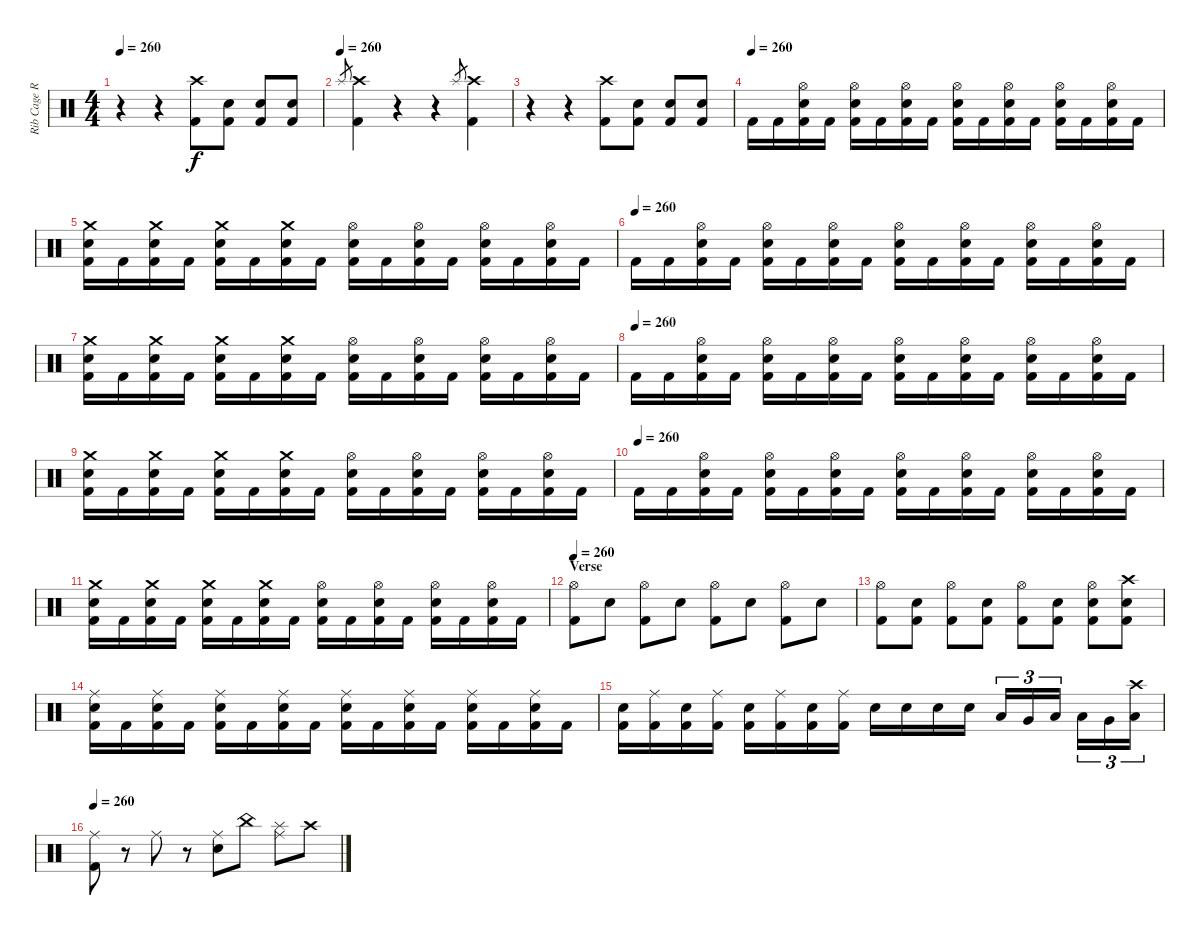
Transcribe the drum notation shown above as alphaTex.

\track ("Rib Cage Rupturing God Stomping Cremator" "Rib Cage R") {instrument percussion}
\staff {score}
\articulation defaults
\ts (4 4)
\tempo 260
\clef neutral
\ks c
r.4{dy f} r.4 ("Crash high (hit)" "Kick (hit) 2").8 ("Electric Snare (hit)" "Kick (hit) 2").8 ("Electric Snare (hit)" "Kick (hit) 2").8 ("Electric Snare (hit)" "Kick (hit) 2").8 |
\tempo (260)
"Splash (hit)".8{gr} ("Crash high (hit)" "Kick (hit) 2").4 r.4 r.4 "Splash (hit)".8{gr} ("Crash high (hit)" "Kick (hit) 2").4 |
r.4 r.4 ("Crash high (hit)" "Kick (hit) 2").8 ("Electric Snare (hit)" "Kick (hit) 2").8 ("Electric Snare (hit)" "Kick (hit) 2").8 ("Electric Snare (hit)" "Kick (hit) 2").8 |
\tempo (260)
"Kick (hit) 2".16 "Kick (hit) 2".16 ("Hi-Hat (open)" "Electric Snare (hit)" "Kick (hit) 2").16 "Kick (hit) 2".16 ("Hi-Hat (open)" "Electric Snare (hit)" "Kick (hit) 2").16 "Kick (hit) 2".16 ("Hi-Hat (open)" "Electric Snare (hit)" "Kick (hit) 2").16 "Kick (hit) 2".16 ("Hi-Hat (open)" "Electric Snare (hit)" "Kick (hit) 2").16 "Kick (hit) 2".16 ("Hi-Hat (open)" "Electric Snare (hit)" "Kick (hit) 2").16 "Kick (hit) 2".16 ("Hi-Hat (open)" "Electric Snare (hit)" "Kick (hit) 2").16 "Kick (hit) 2".16 ("Hi-Hat (open)" "Electric Snare (hit)" "Kick (hit) 2").16 "Kick (hit) 2".16 |
("Crash medium (hit)" "Electric Snare (hit)" "Kick (hit) 2").16 "Kick (hit) 2".16 ("Crash medium (hit)" "Electric Snare (hit)" "Kick (hit) 2").16 "Kick (hit) 2".16 ("Crash medium (hit)" "Electric Snare (hit)" "Kick (hit) 2").16 "Kick (hit) 2".16 ("Crash medium (hit)" "Electric Snare (hit)" "Kick (hit) 2").16 "Kick (hit) 2".16 ("Hi-Hat (open)" "Electric Snare (hit)" "Kick (hit) 2").16 "Kick (hit) 2".16 ("Hi-Hat (open)" "Electric Snare (hit)" "Kick (hit) 2").16 "Kick (hit) 2".16 ("Hi-Hat (open)" "Electric Snare (hit)" "Kick (hit) 2").16 "Kick (hit) 2".16 ("Hi-Hat (open)" "Electric Snare (hit)" "Kick (hit) 2").16 "Kick (hit) 2".16 |
\tempo (260)
"Kick (hit) 2".16 "Kick (hit) 2".16 ("Hi-Hat (open)" "Electric Snare (hit)" "Kick (hit) 2").16 "Kick (hit) 2".16 ("Hi-Hat (open)" "Electric Snare (hit)" "Kick (hit) 2").16 "Kick (hit) 2".16 ("Hi-Hat (open)" "Electric Snare (hit)" "Kick (hit) 2").16 "Kick (hit) 2".16 ("Hi-Hat (open)" "Electric Snare (hit)" "Kick (hit) 2").16 "Kick (hit) 2".16 ("Hi-Hat (open)" "Electric Snare (hit)" "Kick (hit) 2").16 "Kick (hit) 2".16 ("Hi-Hat (open)" "Electric Snare (hit)" "Kick (hit) 2").16 "Kick (hit) 2".16 ("Hi-Hat (open)" "Electric Snare (hit)" "Kick (hit) 2").16 "Kick (hit) 2".16 |
("Crash medium (hit)" "Electric Snare (hit)" "Kick (hit) 2").16 "Kick (hit) 2".16 ("Crash medium (hit)" "Electric Snare (hit)" "Kick (hit) 2").16 "Kick (hit) 2".16 ("Crash medium (hit)" "Electric Snare (hit)" "Kick (hit) 2").16 "Kick (hit) 2".16 ("Crash medium (hit)" "Electric Snare (hit)" "Kick (hit) 2").16 "Kick (hit) 2".16 ("Hi-Hat (open)" "Electric Snare (hit)" "Kick (hit) 2").16 "Kick (hit) 2".16 ("Hi-Hat (open)" "Electric Snare (hit)" "Kick (hit) 2").16 "Kick (hit) 2".16 ("Hi-Hat (open)" "Electric Snare (hit)" "Kick (hit) 2").16 "Kick (hit) 2".16 ("Hi-Hat (open)" "Electric Snare (hit)" "Kick (hit) 2").16 "Kick (hit) 2".16 |
\tempo (260)
"Kick (hit) 2".16 "Kick (hit) 2".16 ("Hi-Hat (open)" "Electric Snare (hit)" "Kick (hit) 2").16 "Kick (hit) 2".16 ("Hi-Hat (open)" "Electric Snare (hit)" "Kick (hit) 2").16 "Kick (hit) 2".16 ("Hi-Hat (open)" "Electric Snare (hit)" "Kick (hit) 2").16 "Kick (hit) 2".16 ("Hi-Hat (open)" "Electric Snare (hit)" "Kick (hit) 2").16 "Kick (hit) 2".16 ("Hi-Hat (open)" "Electric Snare (hit)" "Kick (hit) 2").16 "Kick (hit) 2".16 ("Hi-Hat (open)" "Electric Snare (hit)" "Kick (hit) 2").16 "Kick (hit) 2".16 ("Hi-Hat (open)" "Electric Snare (hit)" "Kick (hit) 2").16 "Kick (hit) 2".16 |
("Crash medium (hit)" "Electric Snare (hit)" "Kick (hit) 2").16 "Kick (hit) 2".16 ("Crash medium (hit)" "Electric Snare (hit)" "Kick (hit) 2").16 "Kick (hit) 2".16 ("Crash medium (hit)" "Electric Snare (hit)" "Kick (hit) 2").16 "Kick (hit) 2".16 ("Crash medium (hit)" "Electric Snare (hit)" "Kick (hit) 2").16 "Kick (hit) 2".16 ("Hi-Hat (open)" "Electric Snare (hit)" "Kick (hit) 2").16 "Kick (hit) 2".16 ("Hi-Hat (open)" "Electric Snare (hit)" "Kick (hit) 2").16 "Kick (hit) 2".16 ("Hi-Hat (open)" "Electric Snare (hit)" "Kick (hit) 2").16 "Kick (hit) 2".16 ("Hi-Hat (open)" "Electric Snare (hit)" "Kick (hit) 2").16 "Kick (hit) 2".16 |
\tempo (260)
"Kick (hit) 2".16 "Kick (hit) 2".16 ("Hi-Hat (open)" "Electric Snare (hit)" "Kick (hit) 2").16 "Kick (hit) 2".16 ("Hi-Hat (open)" "Electric Snare (hit)" "Kick (hit) 2").16 "Kick (hit) 2".16 ("Hi-Hat (open)" "Electric Snare (hit)" "Kick (hit) 2").16 "Kick (hit) 2".16 ("Hi-Hat (open)" "Electric Snare (hit)" "Kick (hit) 2").16 "Kick (hit) 2".16 ("Hi-Hat (open)" "Electric Snare (hit)" "Kick (hit) 2").16 "Kick (hit) 2".16 ("Hi-Hat (open)" "Electric Snare (hit)" "Kick (hit) 2").16 "Kick (hit) 2".16 ("Hi-Hat (open)" "Electric Snare (hit)" "Kick (hit) 2").16 "Kick (hit) 2".16 |
("Crash medium (hit)" "Electric Snare (hit)" "Kick (hit) 2").16 "Kick (hit) 2".16 ("Crash medium (hit)" "Electric Snare (hit)" "Kick (hit) 2").16 "Kick (hit) 2".16 ("Crash medium (hit)" "Electric Snare (hit)" "Kick (hit) 2").16 "Kick (hit) 2".16 ("Crash medium (hit)" "Electric Snare (hit)" "Kick (hit) 2").16 "Kick (hit) 2".16 ("Hi-Hat (open)" "Electric Snare (hit)" "Kick (hit) 2").16 "Kick (hit) 2".16 ("Hi-Hat (open)" "Electric Snare (hit)" "Kick (hit) 2").16 "Kick (hit) 2".16 ("Hi-Hat (open)" "Electric Snare (hit)" "Kick (hit) 2").16 "Kick (hit) 2".16 ("Hi-Hat (open)" "Electric Snare (hit)" "Kick (hit) 2").16 "Kick (hit) 2".16 |
\section ("" "Verse")
\tempo 260
("Hi-Hat (open)" "Kick (hit) 2").8 "Electric Snare (hit)".8 ("Hi-Hat (open)" "Kick (hit) 2").8 "Electric Snare (hit)".8 ("Hi-Hat (open)" "Kick (hit) 2").8 "Electric Snare (hit)".8 ("Hi-Hat (open)" "Kick (hit) 2").8 "Electric Snare (hit)".8 |
("Hi-Hat (open)" "Kick (hit) 2").8 ("Electric Snare (hit)" "Kick (hit) 2").8 ("Hi-Hat (open)" "Kick (hit) 2").8 ("Electric Snare (hit)" "Kick (hit) 2").8 ("Hi-Hat (open)" "Kick (hit) 2").8 ("Electric Snare (hit)" "Kick (hit) 2").8 ("Hi-Hat (open)" "Electric Snare (hit)" "Kick (hit) 2").8 ("Crash high (hit)" "Electric Snare (hit)" "Kick (hit) 2").8 |
("Ride (middle)" "Electric Snare (hit)" "Kick (hit) 2").16 "Kick (hit) 2".16 ("Ride (middle)" "Electric Snare (hit)" "Kick (hit) 2").16 "Kick (hit) 2".16 ("Ride (middle)" "Electric Snare (hit)" "Kick (hit) 2").16 "Kick (hit) 2".16 ("Ride (middle)" "Electric Snare (hit)" "Kick (hit) 2").16 "Kick (hit) 2".16 ("Ride (middle)" "Electric Snare (hit)" "Kick (hit) 2").16 "Kick (hit) 2".16 ("Ride (middle)" "Electric Snare (hit)" "Kick (hit) 2").16 "Kick (hit) 2".16 ("Ride (middle)" "Electric Snare (hit)" "Kick (hit) 2").16 "Kick (hit) 2".16 ("Ride (middle)" "Electric Snare (hit)" "Kick (hit) 2").16 "Kick (hit) 2".16 |
("Electric Snare (hit)" "Kick (hit) 2").16 ("Ride (middle)" "Kick (hit) 2").16 ("Electric Snare (hit)" "Kick (hit) 2").16 ("Ride (middle)" "Kick (hit) 2").16 ("Electric Snare (hit)" "Kick (hit) 2").16 ("Ride (middle)" "Kick (hit) 2").16 ("Electric Snare (hit)" "Kick (hit) 2").16 ("Ride (middle)" "Kick (hit) 2").16 "Electric Snare (hit)".16 "Electric Snare (hit)".16 "Electric Snare (hit)".16 "Electric Snare (hit)".16 "Low Tom (hit)".16{tu (3 2)} "Very Low Tom (hit)".16{tu (3 2)} "Low Floor Tom (hit)".16{tu (3 2)} "Low Tom (hit)".16{tu (3 2)} "Very Low Tom (hit)".16{tu (3 2)} ("Crash high (hit)" "Low Floor Tom (hit)").16{tu (3 2)} |
\tempo 260
("Ride (middle)" "Kick (hit) 2").8 r.8 "Ride (middle)".8 r.8 ("Ride (middle)" "Electric Snare (hit)").8 "China (hit)".8 ("Splash (hit)" "Ride (middle)").8 "Crash high (hit)".8
